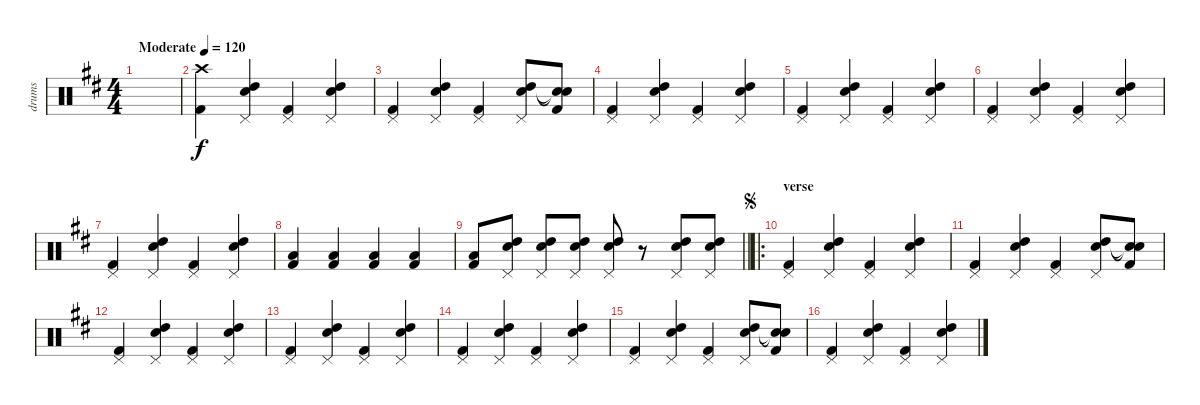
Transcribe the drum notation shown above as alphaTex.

\track ("drums" "drums") {instrument percussion}
\staff {score}
\articulation defaults
\ts (4 4)
\tempo (120 "Moderate")
\clef neutral
\ks d
|
("Crash high (hit)" "Kick (hit) 2").4 ("Pedal Hi-Hat (hit)" "High Tom (hit)" "Electric Snare (hit)").4 ("Kick (hit) 2" "Pedal Hi-Hat (hit)").4 ("Pedal Hi-Hat (hit)" "High Tom (hit)" "Electric Snare (hit)").4 |
("Pedal Hi-Hat (hit)" "Kick (hit) 2").4 ("Pedal Hi-Hat (hit)" "High Tom (hit)" "Electric Snare (hit)").4 ("Kick (hit) 2" "Pedal Hi-Hat (hit)").4 ("Pedal Hi-Hat (hit)" "High Tom (hit)" "Electric Snare (hit)").8 ("Kick (hit) 2" "Snare (hit)"{t} "Snare (hit)"{t}).8 |
("Pedal Hi-Hat (hit)" "Kick (hit) 2").4 ("Pedal Hi-Hat (hit)" "High Tom (hit)" "Electric Snare (hit)").4 ("Kick (hit) 2" "Pedal Hi-Hat (hit)").4 ("Pedal Hi-Hat (hit)" "High Tom (hit)" "Electric Snare (hit)").4 |
("Pedal Hi-Hat (hit)" "Kick (hit) 2").4 ("Pedal Hi-Hat (hit)" "High Tom (hit)" "Electric Snare (hit)").4 ("Kick (hit) 2" "Pedal Hi-Hat (hit)").4 ("Pedal Hi-Hat (hit)" "High Tom (hit)" "Electric Snare (hit)").4 |
("Pedal Hi-Hat (hit)" "Kick (hit) 2").4 ("Pedal Hi-Hat (hit)" "High Tom (hit)" "Electric Snare (hit)").4 ("Kick (hit) 2" "Pedal Hi-Hat (hit)").4 ("Pedal Hi-Hat (hit)" "High Tom (hit)" "Electric Snare (hit)").4 |
("Pedal Hi-Hat (hit)" "Kick (hit) 2").4 ("Pedal Hi-Hat (hit)" "High Tom (hit)" "Electric Snare (hit)").4 ("Kick (hit) 2" "Pedal Hi-Hat (hit)").4 ("Pedal Hi-Hat (hit)" "High Tom (hit)" "Electric Snare (hit)").4 |
("Kick (hit) 2" "Low Floor Tom (hit)").4 ("Kick (hit) 2" "Low Floor Tom (hit)").4 ("Kick (hit) 2" "Low Floor Tom (hit)").4 ("Kick (hit) 2" "Low Floor Tom (hit)").4 |
\barLineRight lightlight
("Kick (hit) 2" "Low Floor Tom (hit)").8 ("Pedal Hi-Hat (hit)" "High Tom (hit)" "Electric Snare (hit)").8 ("Pedal Hi-Hat (hit)" "High Tom (hit)" "Electric Snare (hit)").8 ("Pedal Hi-Hat (hit)" "High Tom (hit)" "Electric Snare (hit)").8 ("Pedal Hi-Hat (hit)" "High Tom (hit)" "Electric Snare (hit)").8 r.8 ("Pedal Hi-Hat (hit)" "High Tom (hit)" "Electric Snare (hit)").8 ("Pedal Hi-Hat (hit)" "High Tom (hit)" "Electric Snare (hit)").8 |
\ro
\section ("" "verse")
\jump segno
("Pedal Hi-Hat (hit)" "Kick (hit) 2").4 ("Pedal Hi-Hat (hit)" "High Tom (hit)" "Electric Snare (hit)").4 ("Kick (hit) 2" "Pedal Hi-Hat (hit)").4 ("Pedal Hi-Hat (hit)" "High Tom (hit)" "Electric Snare (hit)").4 |
("Pedal Hi-Hat (hit)" "Kick (hit) 2").4 ("Pedal Hi-Hat (hit)" "High Tom (hit)" "Electric Snare (hit)").4 ("Kick (hit) 2" "Pedal Hi-Hat (hit)").4 ("Pedal Hi-Hat (hit)" "High Tom (hit)" "Electric Snare (hit)").8 ("Kick (hit) 2" "Snare (hit)"{t} "Snare (hit)"{t}).8 |
("Pedal Hi-Hat (hit)" "Kick (hit) 2").4 ("Pedal Hi-Hat (hit)" "High Tom (hit)" "Electric Snare (hit)").4 ("Kick (hit) 2" "Pedal Hi-Hat (hit)").4 ("Pedal Hi-Hat (hit)" "High Tom (hit)" "Electric Snare (hit)").4 |
("Pedal Hi-Hat (hit)" "Kick (hit) 2").4 ("Pedal Hi-Hat (hit)" "High Tom (hit)" "Electric Snare (hit)").4 ("Kick (hit) 2" "Pedal Hi-Hat (hit)").4 ("Pedal Hi-Hat (hit)" "High Tom (hit)" "Electric Snare (hit)").4 |
("Pedal Hi-Hat (hit)" "Kick (hit) 2").4 ("Pedal Hi-Hat (hit)" "High Tom (hit)" "Electric Snare (hit)").4 ("Kick (hit) 2" "Pedal Hi-Hat (hit)").4 ("Pedal Hi-Hat (hit)" "High Tom (hit)" "Electric Snare (hit)").4 |
("Pedal Hi-Hat (hit)" "Kick (hit) 2").4 ("Pedal Hi-Hat (hit)" "High Tom (hit)" "Electric Snare (hit)").4 ("Kick (hit) 2" "Pedal Hi-Hat (hit)").4 ("Pedal Hi-Hat (hit)" "High Tom (hit)" "Electric Snare (hit)").8 ("Kick (hit) 2" "Snare (hit)"{t} "Snare (hit)"{t}).8 |
("Pedal Hi-Hat (hit)" "Kick (hit) 2").4 ("Pedal Hi-Hat (hit)" "High Tom (hit)" "Electric Snare (hit)").4 ("Kick (hit) 2" "Pedal Hi-Hat (hit)").4 ("Pedal Hi-Hat (hit)" "High Tom (hit)" "Electric Snare (hit)").4
